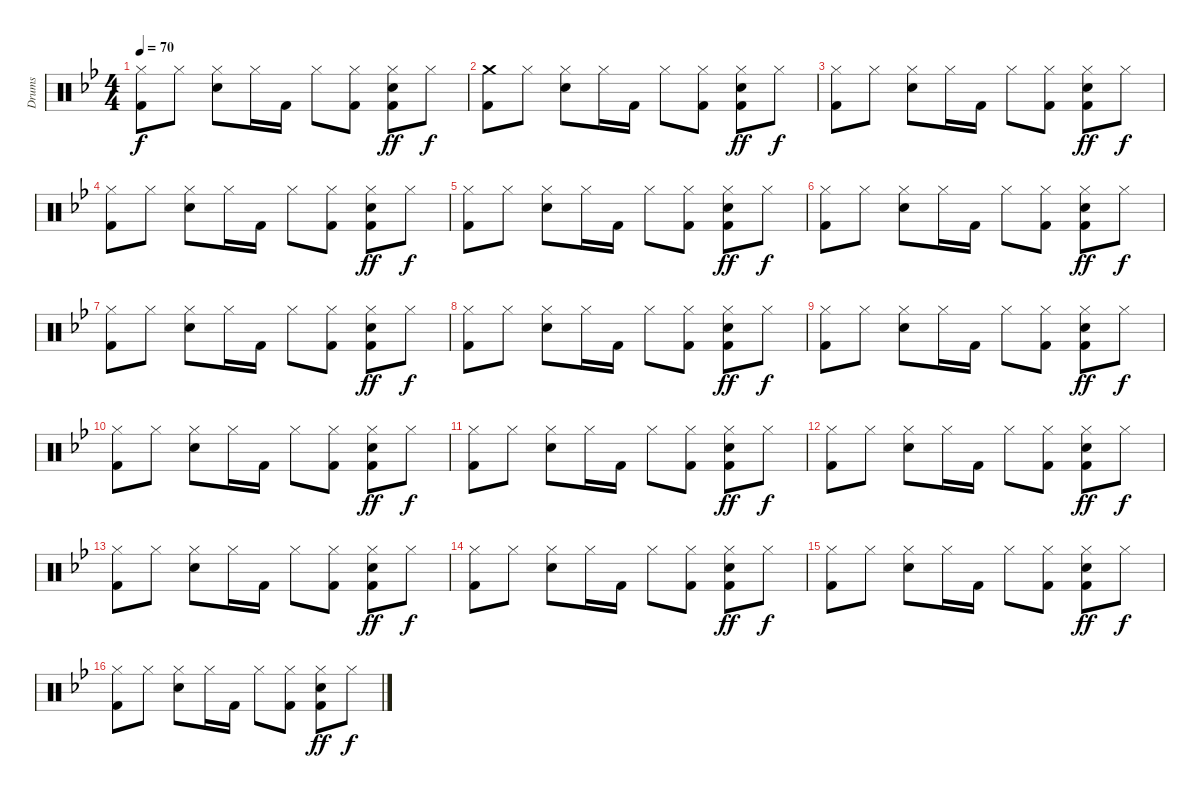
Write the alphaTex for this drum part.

\track ("Drums" "Drums") {instrument percussion}
\staff {score}
\articulation defaults
\ts (4 4)
\tempo 70
\clef neutral
\ks gminor
("Kick (hit) 2" "Hi-Hat (closed)").8{dy f} "Hi-Hat (closed)".8 ("Electric Snare (hit)" "Hi-Hat (closed)").8 "Hi-Hat (closed)".16 "Kick (hit) 2".16 "Hi-Hat (closed)".8 ("Hi-Hat (closed)" "Kick (hit) 2").8 ("Hi-Hat (closed)" "Electric Snare (hit)" "Kick (hit) 2").8{dy ff} "Hi-Hat (closed)".8{dy f} |
("Kick (hit) 2" "Crash medium (hit)").8{volume 9} "Hi-Hat (closed)".8 ("Electric Snare (hit)" "Hi-Hat (closed)").8 "Hi-Hat (closed)".16 "Kick (hit) 2".16 "Hi-Hat (closed)".8 ("Hi-Hat (closed)" "Kick (hit) 2").8 ("Hi-Hat (closed)" "Electric Snare (hit)" "Kick (hit) 2").8{dy ff} "Hi-Hat (closed)".8{dy f} |
("Kick (hit) 2" "Hi-Hat (closed)").8 "Hi-Hat (closed)".8 ("Electric Snare (hit)" "Hi-Hat (closed)").8 "Hi-Hat (closed)".16 "Kick (hit) 2".16 "Hi-Hat (closed)".8 ("Hi-Hat (closed)" "Kick (hit) 2").8 ("Hi-Hat (closed)" "Electric Snare (hit)" "Kick (hit) 2").8{dy ff} "Hi-Hat (closed)".8{dy f} |
("Kick (hit) 2" "Hi-Hat (closed)").8 "Hi-Hat (closed)".8 ("Electric Snare (hit)" "Hi-Hat (closed)").8 "Hi-Hat (closed)".16 "Kick (hit) 2".16 "Hi-Hat (closed)".8 ("Hi-Hat (closed)" "Kick (hit) 2").8 ("Hi-Hat (closed)" "Electric Snare (hit)" "Kick (hit) 2").8{dy ff} "Hi-Hat (closed)".8{dy f} |
("Kick (hit) 2" "Hi-Hat (closed)").8 "Hi-Hat (closed)".8 ("Electric Snare (hit)" "Hi-Hat (closed)").8 "Hi-Hat (closed)".16 "Kick (hit) 2".16 "Hi-Hat (closed)".8 ("Hi-Hat (closed)" "Kick (hit) 2").8 ("Hi-Hat (closed)" "Electric Snare (hit)" "Kick (hit) 2").8{dy ff} "Hi-Hat (closed)".8{dy f} |
("Kick (hit) 2" "Hi-Hat (closed)").8 "Hi-Hat (closed)".8 ("Electric Snare (hit)" "Hi-Hat (closed)").8 "Hi-Hat (closed)".16 "Kick (hit) 2".16 "Hi-Hat (closed)".8 ("Hi-Hat (closed)" "Kick (hit) 2").8 ("Hi-Hat (closed)" "Electric Snare (hit)" "Kick (hit) 2").8{dy ff} "Hi-Hat (closed)".8{dy f} |
("Kick (hit) 2" "Hi-Hat (closed)").8 "Hi-Hat (closed)".8 ("Electric Snare (hit)" "Hi-Hat (closed)").8 "Hi-Hat (closed)".16 "Kick (hit) 2".16 "Hi-Hat (closed)".8 ("Hi-Hat (closed)" "Kick (hit) 2").8 ("Hi-Hat (closed)" "Electric Snare (hit)" "Kick (hit) 2").8{dy ff} "Hi-Hat (closed)".8{dy f} |
("Kick (hit) 2" "Hi-Hat (closed)").8 "Hi-Hat (closed)".8 ("Electric Snare (hit)" "Hi-Hat (closed)").8 "Hi-Hat (closed)".16 "Kick (hit) 2".16 "Hi-Hat (closed)".8 ("Hi-Hat (closed)" "Kick (hit) 2").8 ("Hi-Hat (closed)" "Electric Snare (hit)" "Kick (hit) 2").8{dy ff} "Hi-Hat (closed)".8{dy f} |
("Kick (hit) 2" "Hi-Hat (closed)").8 "Hi-Hat (closed)".8 ("Electric Snare (hit)" "Hi-Hat (closed)").8 "Hi-Hat (closed)".16 "Kick (hit) 2".16 "Hi-Hat (closed)".8 ("Hi-Hat (closed)" "Kick (hit) 2").8 ("Hi-Hat (closed)" "Electric Snare (hit)" "Kick (hit) 2").8{dy ff} "Hi-Hat (closed)".8{dy f} |
("Kick (hit) 2" "Hi-Hat (closed)").8 "Hi-Hat (closed)".8 ("Electric Snare (hit)" "Hi-Hat (closed)").8 "Hi-Hat (closed)".16 "Kick (hit) 2".16 "Hi-Hat (closed)".8 ("Hi-Hat (closed)" "Kick (hit) 2").8 ("Hi-Hat (closed)" "Electric Snare (hit)" "Kick (hit) 2").8{dy ff} "Hi-Hat (closed)".8{dy f} |
("Kick (hit) 2" "Hi-Hat (closed)").8 "Hi-Hat (closed)".8 ("Electric Snare (hit)" "Hi-Hat (closed)").8 "Hi-Hat (closed)".16 "Kick (hit) 2".16 "Hi-Hat (closed)".8 ("Hi-Hat (closed)" "Kick (hit) 2").8 ("Hi-Hat (closed)" "Electric Snare (hit)" "Kick (hit) 2").8{dy ff} "Hi-Hat (closed)".8{dy f} |
("Kick (hit) 2" "Hi-Hat (closed)").8 "Hi-Hat (closed)".8 ("Electric Snare (hit)" "Hi-Hat (closed)").8 "Hi-Hat (closed)".16 "Kick (hit) 2".16 "Hi-Hat (closed)".8 ("Hi-Hat (closed)" "Kick (hit) 2").8 ("Hi-Hat (closed)" "Electric Snare (hit)" "Kick (hit) 2").8{dy ff} "Hi-Hat (closed)".8{dy f} |
("Kick (hit) 2" "Hi-Hat (closed)").8 "Hi-Hat (closed)".8 ("Electric Snare (hit)" "Hi-Hat (closed)").8 "Hi-Hat (closed)".16 "Kick (hit) 2".16 "Hi-Hat (closed)".8 ("Hi-Hat (closed)" "Kick (hit) 2").8 ("Hi-Hat (closed)" "Electric Snare (hit)" "Kick (hit) 2").8{dy ff} "Hi-Hat (closed)".8{dy f} |
("Kick (hit) 2" "Hi-Hat (closed)").8 "Hi-Hat (closed)".8 ("Electric Snare (hit)" "Hi-Hat (closed)").8 "Hi-Hat (closed)".16 "Kick (hit) 2".16 "Hi-Hat (closed)".8 ("Hi-Hat (closed)" "Kick (hit) 2").8 ("Hi-Hat (closed)" "Electric Snare (hit)" "Kick (hit) 2").8{dy ff} "Hi-Hat (closed)".8{dy f} |
("Kick (hit) 2" "Hi-Hat (closed)").8 "Hi-Hat (closed)".8 ("Electric Snare (hit)" "Hi-Hat (closed)").8 "Hi-Hat (closed)".16 "Kick (hit) 2".16 "Hi-Hat (closed)".8 ("Hi-Hat (closed)" "Kick (hit) 2").8 ("Hi-Hat (closed)" "Electric Snare (hit)" "Kick (hit) 2").8{dy ff} "Hi-Hat (closed)".8{dy f} |
("Kick (hit) 2" "Hi-Hat (closed)").8 "Hi-Hat (closed)".8 ("Electric Snare (hit)" "Hi-Hat (closed)").8 "Hi-Hat (closed)".16 "Kick (hit) 2".16 "Hi-Hat (closed)".8 ("Hi-Hat (closed)" "Kick (hit) 2").8 ("Hi-Hat (closed)" "Electric Snare (hit)" "Kick (hit) 2").8{dy ff} "Hi-Hat (closed)".8{dy f}
